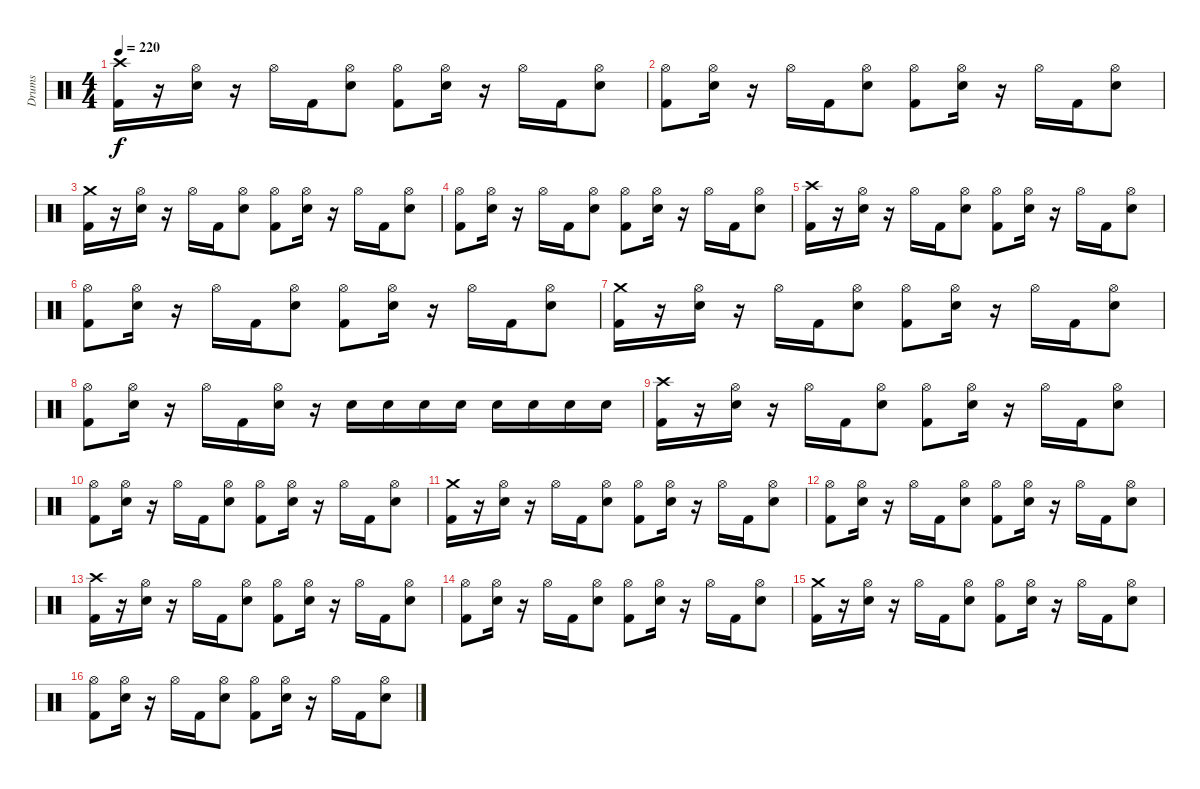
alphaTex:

\track ("Drums" "Drums") {instrument percussion}
\staff {score}
\articulation defaults
\ts (4 4)
\tempo 220
\clef neutral
\ks c
("Crash high (hit)" "Kick (hit) 2").16{dy f} r.16 ("Electric Snare (hit)" "Hi-Hat (open)").16 r.16 "Hi-Hat (open)".16 "Kick (hit) 2".16 ("Electric Snare (hit)" "Hi-Hat (open)").8 ("Kick (hit) 2" "Hi-Hat (open)").8 ("Electric Snare (hit)" "Hi-Hat (open)").16 r.16 "Hi-Hat (open)".16 "Kick (hit) 2".16 ("Electric Snare (hit)" "Hi-Hat (open)").8 |
("Kick (hit) 2" "Hi-Hat (open)").8 ("Electric Snare (hit)" "Hi-Hat (open)").16 r.16 "Hi-Hat (open)".16 "Kick (hit) 2".16 ("Electric Snare (hit)" "Hi-Hat (open)").8 ("Kick (hit) 2" "Hi-Hat (open)").8 ("Electric Snare (hit)" "Hi-Hat (open)").16 r.16 "Hi-Hat (open)".16 "Kick (hit) 2".16 ("Electric Snare (hit)" "Hi-Hat (open)").8 |
("Kick (hit) 2" "Crash medium (hit)").16 r.16 ("Electric Snare (hit)" "Hi-Hat (open)").16 r.16 "Hi-Hat (open)".16 "Kick (hit) 2".16 ("Electric Snare (hit)" "Hi-Hat (open)").8 ("Kick (hit) 2" "Hi-Hat (open)").8 ("Electric Snare (hit)" "Hi-Hat (open)").16 r.16 "Hi-Hat (open)".16 "Kick (hit) 2".16 ("Electric Snare (hit)" "Hi-Hat (open)").8 |
("Kick (hit) 2" "Hi-Hat (open)").8 ("Electric Snare (hit)" "Hi-Hat (open)").16 r.16 "Hi-Hat (open)".16 "Kick (hit) 2".16 ("Electric Snare (hit)" "Hi-Hat (open)").8 ("Kick (hit) 2" "Hi-Hat (open)").8 ("Electric Snare (hit)" "Hi-Hat (open)").16 r.16 "Hi-Hat (open)".16 "Kick (hit) 2".16 ("Electric Snare (hit)" "Hi-Hat (open)").8 |
("Crash high (hit)" "Kick (hit) 2").16 r.16 ("Electric Snare (hit)" "Hi-Hat (open)").16 r.16 "Hi-Hat (open)".16 "Kick (hit) 2".16 ("Electric Snare (hit)" "Hi-Hat (open)").8 ("Kick (hit) 2" "Hi-Hat (open)").8 ("Electric Snare (hit)" "Hi-Hat (open)").16 r.16 "Hi-Hat (open)".16 "Kick (hit) 2".16 ("Electric Snare (hit)" "Hi-Hat (open)").8 |
("Kick (hit) 2" "Hi-Hat (open)").8 ("Electric Snare (hit)" "Hi-Hat (open)").16 r.16 "Hi-Hat (open)".16 "Kick (hit) 2".16 ("Electric Snare (hit)" "Hi-Hat (open)").8 ("Kick (hit) 2" "Hi-Hat (open)").8 ("Electric Snare (hit)" "Hi-Hat (open)").16 r.16 "Hi-Hat (open)".16 "Kick (hit) 2".16 ("Electric Snare (hit)" "Hi-Hat (open)").8 |
("Kick (hit) 2" "Crash medium (hit)").16 r.16 ("Electric Snare (hit)" "Hi-Hat (open)").16 r.16 "Hi-Hat (open)".16 "Kick (hit) 2".16 ("Electric Snare (hit)" "Hi-Hat (open)").8 ("Kick (hit) 2" "Hi-Hat (open)").8 ("Electric Snare (hit)" "Hi-Hat (open)").16 r.16 "Hi-Hat (open)".16 "Kick (hit) 2".16 ("Electric Snare (hit)" "Hi-Hat (open)").8 |
("Kick (hit) 2" "Hi-Hat (open)").8 ("Electric Snare (hit)" "Hi-Hat (open)").16 r.16 "Hi-Hat (open)".16 "Kick (hit) 2".16 ("Electric Snare (hit)" "Hi-Hat (open)").16 r.16 "Electric Snare (hit)".16 "Electric Snare (hit)".16 "Electric Snare (hit)".16 "Electric Snare (hit)".16 "Electric Snare (hit)".16 "Electric Snare (hit)".16 "Electric Snare (hit)".16 "Electric Snare (hit)".16 |
("Crash high (hit)" "Kick (hit) 2").16 r.16 ("Electric Snare (hit)" "Hi-Hat (open)").16 r.16 "Hi-Hat (open)".16 "Kick (hit) 2".16 ("Electric Snare (hit)" "Hi-Hat (open)").8 ("Kick (hit) 2" "Hi-Hat (open)").8 ("Electric Snare (hit)" "Hi-Hat (open)").16 r.16 "Hi-Hat (open)".16 "Kick (hit) 2".16 ("Electric Snare (hit)" "Hi-Hat (open)").8 |
("Kick (hit) 2" "Hi-Hat (open)").8 ("Electric Snare (hit)" "Hi-Hat (open)").16 r.16 "Hi-Hat (open)".16 "Kick (hit) 2".16 ("Electric Snare (hit)" "Hi-Hat (open)").8 ("Kick (hit) 2" "Hi-Hat (open)").8 ("Electric Snare (hit)" "Hi-Hat (open)").16 r.16 "Hi-Hat (open)".16 "Kick (hit) 2".16 ("Electric Snare (hit)" "Hi-Hat (open)").8 |
("Kick (hit) 2" "Crash medium (hit)").16 r.16 ("Electric Snare (hit)" "Hi-Hat (open)").16 r.16 "Hi-Hat (open)".16 "Kick (hit) 2".16 ("Electric Snare (hit)" "Hi-Hat (open)").8 ("Kick (hit) 2" "Hi-Hat (open)").8 ("Electric Snare (hit)" "Hi-Hat (open)").16 r.16 "Hi-Hat (open)".16 "Kick (hit) 2".16 ("Electric Snare (hit)" "Hi-Hat (open)").8 |
("Kick (hit) 2" "Hi-Hat (open)").8 ("Electric Snare (hit)" "Hi-Hat (open)").16 r.16 "Hi-Hat (open)".16 "Kick (hit) 2".16 ("Electric Snare (hit)" "Hi-Hat (open)").8 ("Kick (hit) 2" "Hi-Hat (open)").8 ("Electric Snare (hit)" "Hi-Hat (open)").16 r.16 "Hi-Hat (open)".16 "Kick (hit) 2".16 ("Electric Snare (hit)" "Hi-Hat (open)").8 |
("Crash high (hit)" "Kick (hit) 2").16 r.16 ("Electric Snare (hit)" "Hi-Hat (open)").16 r.16 "Hi-Hat (open)".16 "Kick (hit) 2".16 ("Electric Snare (hit)" "Hi-Hat (open)").8 ("Kick (hit) 2" "Hi-Hat (open)").8 ("Electric Snare (hit)" "Hi-Hat (open)").16 r.16 "Hi-Hat (open)".16 "Kick (hit) 2".16 ("Electric Snare (hit)" "Hi-Hat (open)").8 |
("Kick (hit) 2" "Hi-Hat (open)").8 ("Electric Snare (hit)" "Hi-Hat (open)").16 r.16 "Hi-Hat (open)".16 "Kick (hit) 2".16 ("Electric Snare (hit)" "Hi-Hat (open)").8 ("Kick (hit) 2" "Hi-Hat (open)").8 ("Electric Snare (hit)" "Hi-Hat (open)").16 r.16 "Hi-Hat (open)".16 "Kick (hit) 2".16 ("Electric Snare (hit)" "Hi-Hat (open)").8 |
("Kick (hit) 2" "Crash medium (hit)").16 r.16 ("Electric Snare (hit)" "Hi-Hat (open)").16 r.16 "Hi-Hat (open)".16 "Kick (hit) 2".16 ("Electric Snare (hit)" "Hi-Hat (open)").8 ("Kick (hit) 2" "Hi-Hat (open)").8 ("Electric Snare (hit)" "Hi-Hat (open)").16 r.16 "Hi-Hat (open)".16 "Kick (hit) 2".16 ("Electric Snare (hit)" "Hi-Hat (open)").8 |
("Kick (hit) 2" "Hi-Hat (open)").8 ("Electric Snare (hit)" "Hi-Hat (open)").16 r.16 "Hi-Hat (open)".16 "Kick (hit) 2".16 ("Electric Snare (hit)" "Hi-Hat (open)").8 ("Kick (hit) 2" "Hi-Hat (open)").8 ("Electric Snare (hit)" "Hi-Hat (open)").16 r.16 "Hi-Hat (open)".16 "Kick (hit) 2".16 ("Electric Snare (hit)" "Hi-Hat (open)").8
